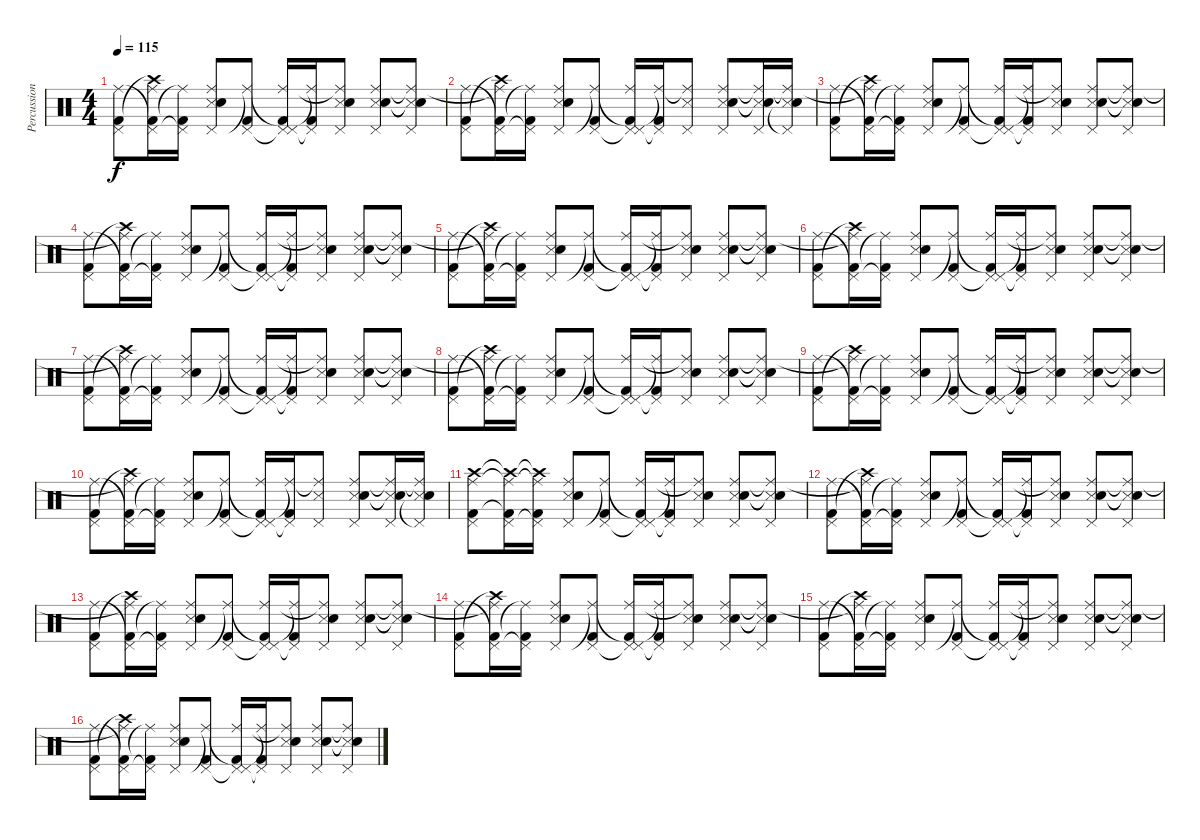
\track ("Percussioni" "Percussion") {instrument percussion}
\staff {score}
\articulation defaults
\ts (4 4)
\tempo 115
\clef neutral
\ks c
("Pedal Hi-Hat (hit)" "Kick (hit) 2" "Ride (middle)").8{dy f} ("Pedal Hi-Hat (hit)" "Crash high (hit)"{t} "Kick (hit) 2"{t} "Ride (middle)"{t}).16 ("Pedal Hi-Hat (hit)"{t} "Kick (hit) 2" "Ride (middle)"{t}).16 ("Snare (side stick) 3" "Electric Snare (hit)" "Pedal Hi-Hat (hit)" "Ride (middle)").8 ("Pedal Hi-Hat (hit)" "Kick (hit) 2" "Ride (middle)"{t}).8 ("Pedal Hi-Hat (hit)"{t} "Pedal Hi-Hat (hit)" "Kick (hit) 2"{t} "Ride (middle)").16 ("Pedal Hi-Hat (hit)"{t} "Kick (hit) 2" "Ride (middle)"{t}).16 ("Snare (side stick) 3" "Pedal Hi-Hat (hit)" "Electric Snare (hit)" "Ride (middle)"{t}).8 ("Snare (side stick) 3" "Electric Snare (hit)" "Pedal Hi-Hat (hit)" "Ride (middle)").8 ("Snare (side stick) 3"{t} "Electric Snare (hit)"{t} "Pedal Hi-Hat (hit)" "Ride (middle)"{t}).8 |
("Pedal Hi-Hat (hit)" "Kick (hit) 2" "Ride (middle)").8 ("Pedal Hi-Hat (hit)" "Crash high (hit)"{t} "Kick (hit) 2"{t} "Ride (middle)"{t}).16 ("Pedal Hi-Hat (hit)"{t} "Kick (hit) 2" "Ride (middle)"{t}).16 ("Snare (side stick) 3" "Electric Snare (hit)" "Pedal Hi-Hat (hit)" "Ride (middle)").8 ("Pedal Hi-Hat (hit)" "Kick (hit) 2" "Ride (middle)"{t}).8 ("Pedal Hi-Hat (hit)"{t} "Pedal Hi-Hat (hit)" "Kick (hit) 2"{t} "Ride (middle)").16 ("Pedal Hi-Hat (hit)"{t} "Kick (hit) 2" "Ride (middle)"{t}).16 ("Snare (side stick) 3" "Pedal Hi-Hat (hit)" "Ride (middle)"{t}).8 ("Snare (side stick) 3" "Electric Snare (hit)" "Pedal Hi-Hat (hit)" "Ride (middle)").8 ("Snare (side stick) 3"{t} "Electric Snare (hit)"{t} "Pedal Hi-Hat (hit)" "Ride (middle)"{t}).16 ("Pedal Hi-Hat (hit)"{t} "Snare (side stick) 3" "Electric Snare (hit)" "Ride (middle)"{t}).16 |
("Pedal Hi-Hat (hit)" "Kick (hit) 2" "Ride (middle)").8 ("Pedal Hi-Hat (hit)" "Crash high (hit)"{t} "Kick (hit) 2"{t} "Ride (middle)"{t}).16 ("Pedal Hi-Hat (hit)"{t} "Kick (hit) 2" "Ride (middle)"{t}).16 ("Snare (side stick) 3" "Electric Snare (hit)" "Pedal Hi-Hat (hit)" "Ride (middle)").8 ("Pedal Hi-Hat (hit)" "Kick (hit) 2" "Ride (middle)"{t}).8 ("Pedal Hi-Hat (hit)"{t} "Pedal Hi-Hat (hit)" "Kick (hit) 2"{t} "Ride (middle)").16 ("Pedal Hi-Hat (hit)"{t} "Kick (hit) 2" "Ride (middle)"{t}).16 ("Snare (side stick) 3" "Pedal Hi-Hat (hit)" "Electric Snare (hit)" "Ride (middle)"{t}).8 ("Snare (side stick) 3" "Electric Snare (hit)" "Pedal Hi-Hat (hit)" "Ride (middle)").8 ("Snare (side stick) 3"{t} "Electric Snare (hit)"{t} "Pedal Hi-Hat (hit)" "Ride (middle)"{t}).8 |
("Pedal Hi-Hat (hit)" "Kick (hit) 2" "Ride (middle)").8 ("Pedal Hi-Hat (hit)" "Crash high (hit)"{t} "Kick (hit) 2"{t} "Ride (middle)"{t}).16 ("Pedal Hi-Hat (hit)"{t} "Kick (hit) 2" "Ride (middle)"{t}).16 ("Snare (side stick) 3" "Electric Snare (hit)" "Pedal Hi-Hat (hit)" "Ride (middle)").8 ("Pedal Hi-Hat (hit)" "Kick (hit) 2" "Ride (middle)"{t}).8 ("Pedal Hi-Hat (hit)"{t} "Pedal Hi-Hat (hit)" "Kick (hit) 2"{t} "Ride (middle)").16 ("Pedal Hi-Hat (hit)"{t} "Kick (hit) 2" "Ride (middle)"{t}).16 ("Snare (side stick) 3" "Pedal Hi-Hat (hit)" "Electric Snare (hit)" "Ride (middle)"{t}).8 ("Snare (side stick) 3" "Electric Snare (hit)" "Pedal Hi-Hat (hit)" "Ride (middle)").8 ("Snare (side stick) 3"{t} "Electric Snare (hit)"{t} "Pedal Hi-Hat (hit)" "Ride (middle)"{t}).8 |
("Pedal Hi-Hat (hit)" "Kick (hit) 2" "Ride (middle)").8 ("Pedal Hi-Hat (hit)" "Crash high (hit)"{t} "Kick (hit) 2"{t} "Ride (middle)"{t}).16 ("Pedal Hi-Hat (hit)"{t} "Kick (hit) 2" "Ride (middle)"{t}).16 ("Snare (side stick) 3" "Electric Snare (hit)" "Pedal Hi-Hat (hit)" "Ride (middle)").8 ("Pedal Hi-Hat (hit)" "Kick (hit) 2" "Ride (middle)"{t}).8 ("Pedal Hi-Hat (hit)"{t} "Pedal Hi-Hat (hit)" "Kick (hit) 2"{t} "Ride (middle)").16 ("Pedal Hi-Hat (hit)"{t} "Kick (hit) 2" "Ride (middle)"{t}).16 ("Snare (side stick) 3" "Pedal Hi-Hat (hit)" "Electric Snare (hit)" "Ride (middle)"{t}).8 ("Snare (side stick) 3" "Electric Snare (hit)" "Pedal Hi-Hat (hit)" "Ride (middle)").8 ("Snare (side stick) 3"{t} "Electric Snare (hit)"{t} "Pedal Hi-Hat (hit)" "Ride (middle)"{t}).8 |
("Pedal Hi-Hat (hit)" "Kick (hit) 2" "Ride (middle)").8 ("Pedal Hi-Hat (hit)" "Crash high (hit)"{t} "Kick (hit) 2"{t} "Ride (middle)"{t}).16 ("Pedal Hi-Hat (hit)"{t} "Kick (hit) 2" "Ride (middle)"{t}).16 ("Snare (side stick) 3" "Electric Snare (hit)" "Pedal Hi-Hat (hit)" "Ride (middle)").8 ("Pedal Hi-Hat (hit)" "Kick (hit) 2" "Ride (middle)"{t}).8 ("Pedal Hi-Hat (hit)"{t} "Pedal Hi-Hat (hit)" "Kick (hit) 2"{t} "Ride (middle)").16 ("Pedal Hi-Hat (hit)"{t} "Kick (hit) 2" "Ride (middle)"{t}).16 ("Snare (side stick) 3" "Pedal Hi-Hat (hit)" "Electric Snare (hit)" "Ride (middle)"{t}).8 ("Snare (side stick) 3" "Electric Snare (hit)" "Pedal Hi-Hat (hit)" "Ride (middle)").8 ("Snare (side stick) 3"{t} "Electric Snare (hit)"{t} "Pedal Hi-Hat (hit)" "Ride (middle)"{t}).8 |
("Pedal Hi-Hat (hit)" "Kick (hit) 2" "Ride (middle)").8 ("Pedal Hi-Hat (hit)" "Crash high (hit)"{t} "Kick (hit) 2"{t} "Ride (middle)"{t}).16 ("Pedal Hi-Hat (hit)"{t} "Kick (hit) 2" "Ride (middle)"{t}).16 ("Snare (side stick) 3" "Electric Snare (hit)" "Pedal Hi-Hat (hit)" "Ride (middle)").8 ("Pedal Hi-Hat (hit)" "Kick (hit) 2" "Ride (middle)"{t}).8 ("Pedal Hi-Hat (hit)"{t} "Pedal Hi-Hat (hit)" "Kick (hit) 2"{t} "Ride (middle)").16 ("Pedal Hi-Hat (hit)"{t} "Kick (hit) 2" "Ride (middle)"{t}).16 ("Snare (side stick) 3" "Pedal Hi-Hat (hit)" "Electric Snare (hit)" "Ride (middle)"{t}).8 ("Snare (side stick) 3" "Electric Snare (hit)" "Pedal Hi-Hat (hit)" "Ride (middle)").8 ("Snare (side stick) 3"{t} "Electric Snare (hit)"{t} "Pedal Hi-Hat (hit)" "Ride (middle)"{t}).8 |
("Pedal Hi-Hat (hit)" "Kick (hit) 2" "Ride (middle)").8 ("Pedal Hi-Hat (hit)" "Crash high (hit)"{t} "Kick (hit) 2"{t} "Ride (middle)"{t}).16 ("Pedal Hi-Hat (hit)"{t} "Kick (hit) 2" "Ride (middle)"{t}).16 ("Snare (side stick) 3" "Electric Snare (hit)" "Pedal Hi-Hat (hit)" "Ride (middle)").8 ("Pedal Hi-Hat (hit)" "Kick (hit) 2" "Ride (middle)"{t}).8 ("Pedal Hi-Hat (hit)"{t} "Pedal Hi-Hat (hit)" "Kick (hit) 2"{t} "Ride (middle)").16 ("Pedal Hi-Hat (hit)"{t} "Kick (hit) 2" "Ride (middle)"{t}).16 ("Snare (side stick) 3" "Pedal Hi-Hat (hit)" "Electric Snare (hit)" "Ride (middle)"{t}).8 ("Snare (side stick) 3" "Electric Snare (hit)" "Pedal Hi-Hat (hit)" "Ride (middle)").8 ("Snare (side stick) 3"{t} "Electric Snare (hit)"{t} "Pedal Hi-Hat (hit)" "Ride (middle)"{t}).8 |
("Pedal Hi-Hat (hit)" "Kick (hit) 2" "Ride (middle)").8 ("Pedal Hi-Hat (hit)" "Crash high (hit)"{t} "Kick (hit) 2"{t} "Ride (middle)"{t}).16 ("Pedal Hi-Hat (hit)"{t} "Kick (hit) 2" "Ride (middle)"{t}).16 ("Snare (side stick) 3" "Electric Snare (hit)" "Pedal Hi-Hat (hit)" "Ride (middle)").8 ("Pedal Hi-Hat (hit)" "Kick (hit) 2" "Ride (middle)"{t}).8 ("Pedal Hi-Hat (hit)"{t} "Pedal Hi-Hat (hit)" "Kick (hit) 2"{t} "Ride (middle)").16 ("Pedal Hi-Hat (hit)"{t} "Kick (hit) 2" "Ride (middle)"{t}).16 ("Snare (side stick) 3" "Pedal Hi-Hat (hit)" "Electric Snare (hit)" "Ride (middle)"{t}).8 ("Snare (side stick) 3" "Electric Snare (hit)" "Pedal Hi-Hat (hit)" "Ride (middle)").8 ("Snare (side stick) 3"{t} "Electric Snare (hit)"{t} "Pedal Hi-Hat (hit)" "Ride (middle)"{t}).8 |
("Pedal Hi-Hat (hit)" "Kick (hit) 2" "Ride (middle)").8 ("Pedal Hi-Hat (hit)" "Crash high (hit)"{t} "Kick (hit) 2"{t} "Ride (middle)"{t}).16 ("Pedal Hi-Hat (hit)"{t} "Kick (hit) 2" "Ride (middle)"{t}).16 ("Snare (side stick) 3" "Electric Snare (hit)" "Pedal Hi-Hat (hit)" "Ride (middle)").8 ("Pedal Hi-Hat (hit)" "Kick (hit) 2" "Ride (middle)"{t}).8 ("Pedal Hi-Hat (hit)"{t} "Pedal Hi-Hat (hit)" "Kick (hit) 2"{t} "Ride (middle)").16 ("Pedal Hi-Hat (hit)"{t} "Kick (hit) 2" "Ride (middle)"{t}).16 ("Snare (side stick) 3" "Pedal Hi-Hat (hit)" "Ride (middle)"{t}).8 ("Snare (side stick) 3" "Electric Snare (hit)" "Pedal Hi-Hat (hit)" "Ride (middle)").8 ("Snare (side stick) 3"{t} "Electric Snare (hit)"{t} "Pedal Hi-Hat (hit)" "Ride (middle)"{t}).16 ("Pedal Hi-Hat (hit)"{t} "Snare (side stick) 3" "Electric Snare (hit)" "Ride (middle)"{t}).16 |
("Pedal Hi-Hat (hit)" "Crash high (hit)" "Kick (hit) 2" "Ride (middle)").8 ("Pedal Hi-Hat (hit)" "Crash high (hit)"{t} "Kick (hit) 2"{t} "Ride (middle)"{t}).16 ("Pedal Hi-Hat (hit)"{t} "Crash high (hit)"{t} "Kick (hit) 2" "Ride (middle)"{t}).16 ("Snare (side stick) 3" "Electric Snare (hit)" "Pedal Hi-Hat (hit)" "Ride (middle)").8 ("Pedal Hi-Hat (hit)" "Kick (hit) 2" "Ride (middle)"{t}).8 ("Pedal Hi-Hat (hit)"{t} "Pedal Hi-Hat (hit)" "Kick (hit) 2"{t} "Ride (middle)").16 ("Pedal Hi-Hat (hit)"{t} "Kick (hit) 2" "Ride (middle)"{t}).16 ("Snare (side stick) 3" "Pedal Hi-Hat (hit)" "Electric Snare (hit)" "Ride (middle)"{t}).8 ("Snare (side stick) 3" "Electric Snare (hit)" "Pedal Hi-Hat (hit)" "Ride (middle)").8 ("Snare (side stick) 3"{t} "Electric Snare (hit)"{t} "Pedal Hi-Hat (hit)" "Ride (middle)"{t}).8 |
("Pedal Hi-Hat (hit)" "Kick (hit) 2" "Ride (middle)").8 ("Pedal Hi-Hat (hit)" "Crash high (hit)"{t} "Kick (hit) 2"{t} "Ride (middle)"{t}).16 ("Pedal Hi-Hat (hit)"{t} "Kick (hit) 2" "Ride (middle)"{t}).16 ("Snare (side stick) 3" "Electric Snare (hit)" "Pedal Hi-Hat (hit)" "Ride (middle)").8 ("Pedal Hi-Hat (hit)" "Kick (hit) 2" "Ride (middle)"{t}).8 ("Pedal Hi-Hat (hit)"{t} "Pedal Hi-Hat (hit)" "Kick (hit) 2"{t} "Ride (middle)").16 ("Pedal Hi-Hat (hit)"{t} "Kick (hit) 2" "Ride (middle)"{t}).16 ("Snare (side stick) 3" "Pedal Hi-Hat (hit)" "Electric Snare (hit)" "Ride (middle)"{t}).8 ("Snare (side stick) 3" "Electric Snare (hit)" "Pedal Hi-Hat (hit)" "Ride (middle)").8 ("Snare (side stick) 3"{t} "Electric Snare (hit)"{t} "Pedal Hi-Hat (hit)" "Ride (middle)"{t}).8 |
("Pedal Hi-Hat (hit)" "Kick (hit) 2" "Ride (middle)").8 ("Pedal Hi-Hat (hit)" "Crash high (hit)"{t} "Kick (hit) 2"{t} "Ride (middle)"{t}).16 ("Pedal Hi-Hat (hit)"{t} "Kick (hit) 2" "Ride (middle)"{t}).16 ("Snare (side stick) 3" "Electric Snare (hit)" "Pedal Hi-Hat (hit)" "Ride (middle)").8 ("Pedal Hi-Hat (hit)" "Kick (hit) 2" "Ride (middle)"{t}).8 ("Pedal Hi-Hat (hit)"{t} "Pedal Hi-Hat (hit)" "Kick (hit) 2"{t} "Ride (middle)").16 ("Pedal Hi-Hat (hit)"{t} "Kick (hit) 2" "Ride (middle)"{t}).16 ("Snare (side stick) 3" "Pedal Hi-Hat (hit)" "Electric Snare (hit)" "Ride (middle)"{t}).8 ("Snare (side stick) 3" "Electric Snare (hit)" "Pedal Hi-Hat (hit)" "Ride (middle)").8 ("Snare (side stick) 3"{t} "Electric Snare (hit)"{t} "Pedal Hi-Hat (hit)" "Ride (middle)"{t}).8 |
("Pedal Hi-Hat (hit)" "Kick (hit) 2" "Ride (middle)").8 ("Pedal Hi-Hat (hit)" "Crash high (hit)"{t} "Kick (hit) 2"{t} "Ride (middle)"{t}).16 ("Pedal Hi-Hat (hit)"{t} "Kick (hit) 2" "Ride (middle)"{t}).16 ("Snare (side stick) 3" "Electric Snare (hit)" "Pedal Hi-Hat (hit)" "Ride (middle)").8 ("Pedal Hi-Hat (hit)" "Kick (hit) 2" "Ride (middle)"{t}).8 ("Pedal Hi-Hat (hit)"{t} "Pedal Hi-Hat (hit)" "Kick (hit) 2"{t} "Ride (middle)").16 ("Pedal Hi-Hat (hit)"{t} "Kick (hit) 2" "Ride (middle)"{t}).16 ("Snare (side stick) 3" "Pedal Hi-Hat (hit)" "Electric Snare (hit)" "Ride (middle)"{t}).8 ("Snare (side stick) 3" "Electric Snare (hit)" "Pedal Hi-Hat (hit)" "Ride (middle)").8 ("Snare (side stick) 3"{t} "Electric Snare (hit)"{t} "Pedal Hi-Hat (hit)" "Ride (middle)"{t}).8 |
("Pedal Hi-Hat (hit)" "Kick (hit) 2" "Ride (middle)").8 ("Pedal Hi-Hat (hit)" "Crash high (hit)"{t} "Kick (hit) 2"{t} "Ride (middle)"{t}).16 ("Pedal Hi-Hat (hit)"{t} "Kick (hit) 2" "Ride (middle)"{t}).16 ("Snare (side stick) 3" "Electric Snare (hit)" "Pedal Hi-Hat (hit)" "Ride (middle)").8 ("Pedal Hi-Hat (hit)" "Kick (hit) 2" "Ride (middle)"{t}).8 ("Pedal Hi-Hat (hit)"{t} "Pedal Hi-Hat (hit)" "Kick (hit) 2"{t} "Ride (middle)").16 ("Pedal Hi-Hat (hit)"{t} "Kick (hit) 2" "Ride (middle)"{t}).16 ("Snare (side stick) 3" "Pedal Hi-Hat (hit)" "Electric Snare (hit)" "Ride (middle)"{t}).8 ("Snare (side stick) 3" "Electric Snare (hit)" "Pedal Hi-Hat (hit)" "Ride (middle)").8 ("Snare (side stick) 3"{t} "Electric Snare (hit)"{t} "Pedal Hi-Hat (hit)" "Ride (middle)"{t}).8 |
("Pedal Hi-Hat (hit)" "Kick (hit) 2" "Ride (middle)").8 ("Pedal Hi-Hat (hit)" "Crash high (hit)"{t} "Kick (hit) 2"{t} "Ride (middle)"{t}).16 ("Pedal Hi-Hat (hit)"{t} "Kick (hit) 2" "Ride (middle)"{t}).16 ("Snare (side stick) 3" "Electric Snare (hit)" "Pedal Hi-Hat (hit)" "Ride (middle)").8 ("Pedal Hi-Hat (hit)" "Kick (hit) 2" "Ride (middle)"{t}).8 ("Pedal Hi-Hat (hit)"{t} "Pedal Hi-Hat (hit)" "Kick (hit) 2"{t} "Ride (middle)").16 ("Pedal Hi-Hat (hit)"{t} "Kick (hit) 2" "Ride (middle)"{t}).16 ("Snare (side stick) 3" "Pedal Hi-Hat (hit)" "Electric Snare (hit)" "Ride (middle)"{t}).8 ("Snare (side stick) 3" "Electric Snare (hit)" "Pedal Hi-Hat (hit)" "Ride (middle)").8 ("Snare (side stick) 3"{t} "Electric Snare (hit)"{t} "Pedal Hi-Hat (hit)" "Ride (middle)"{t}).8
